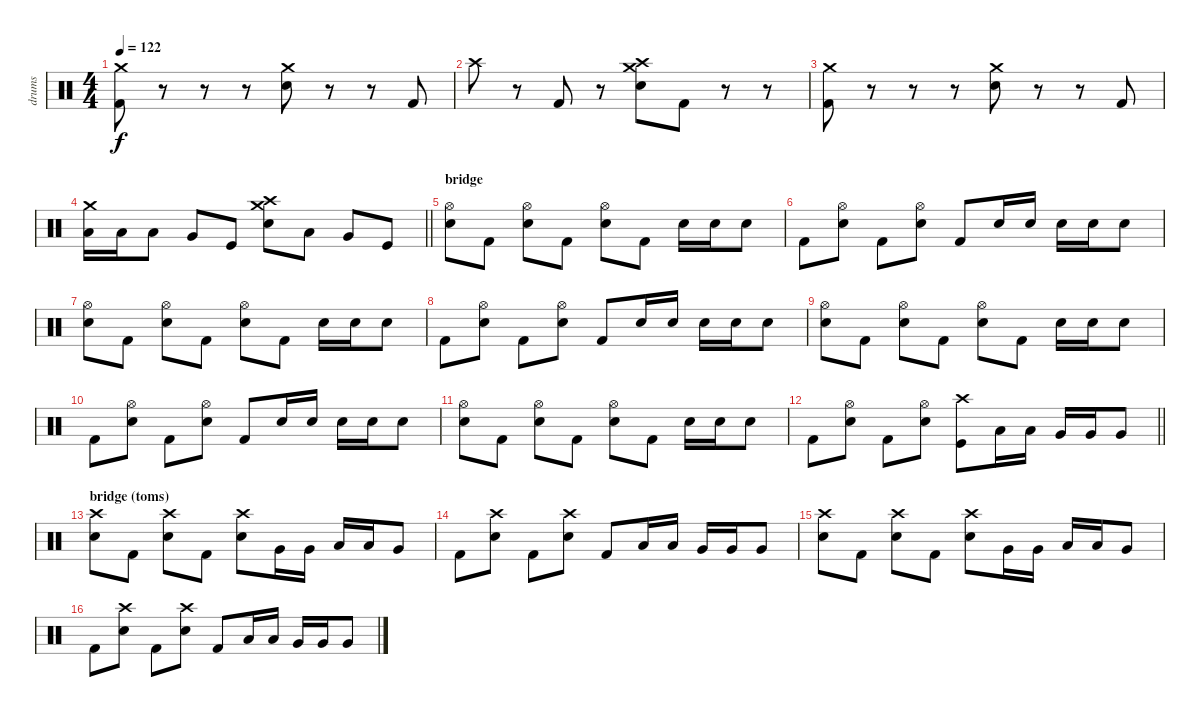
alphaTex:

\track ("drums" "drums") {instrument percussion}
\staff {score}
\articulation defaults
\ts (4 4)
\tempo 122
\clef neutral
\ks c
("Crash medium (hit)" "Kick (hit) 2").8{dy f} r.8 r.8 r.8 ("Crash medium (hit)" "Electric Snare (hit)").8 r.8 r.8 "Kick (hit) 2".8 |
"Crash high (hit)".8 r.8 "Kick (hit) 2".8 r.8 ("Crash medium (hit)" "Crash high (hit)" "Electric Snare (hit)").8 "Kick (hit) 2".8 r.8 r.8 |
("Crash medium (hit)" "Kick (hit) 2").8 r.8 r.8 r.8 ("Crash medium (hit)" "Electric Snare (hit)").8 r.8 r.8 "Kick (hit) 2".8 |
\barLineRight lightlight
("Crash medium (hit)" "Low Tom (hit)").16 "Low Tom (hit)".16 "Low Tom (hit)".8 "Very Low Tom (hit)".8 "Kick (hit)".8 ("Crash medium (hit)" "Crash high (hit)" "Electric Snare (hit)").8 "Low Tom (hit)".8 "Very Low Tom (hit)".8 "Kick (hit)".8 |
\section ("" "bridge")
("Hi-Hat (open)" "Electric Snare (hit)").8 "Kick (hit) 2".8 ("Hi-Hat (open)" "Electric Snare (hit)").8 "Kick (hit) 2".8 ("Hi-Hat (open)" "Electric Snare (hit)").8 "Kick (hit) 2".8 "Electric Snare (hit)".16 "Electric Snare (hit)".16 "Electric Snare (hit)".8 |
"Kick (hit) 2".8 ("Hi-Hat (open)" "Electric Snare (hit)").8 "Kick (hit) 2".8 ("Hi-Hat (open)" "Electric Snare (hit)").8 "Kick (hit) 2".8 "Electric Snare (hit)".16 "Electric Snare (hit)".16 "Electric Snare (hit)".16 "Electric Snare (hit)".16 "Electric Snare (hit)".8 |
("Hi-Hat (open)" "Electric Snare (hit)").8 "Kick (hit) 2".8 ("Hi-Hat (open)" "Electric Snare (hit)").8 "Kick (hit) 2".8 ("Hi-Hat (open)" "Electric Snare (hit)").8 "Kick (hit) 2".8 "Electric Snare (hit)".16 "Electric Snare (hit)".16 "Electric Snare (hit)".8 |
"Kick (hit) 2".8 ("Hi-Hat (open)" "Electric Snare (hit)").8 "Kick (hit) 2".8 ("Hi-Hat (open)" "Electric Snare (hit)").8 "Kick (hit) 2".8 "Electric Snare (hit)".16 "Electric Snare (hit)".16 "Electric Snare (hit)".16 "Electric Snare (hit)".16 "Electric Snare (hit)".8 |
("Hi-Hat (open)" "Electric Snare (hit)").8 "Kick (hit) 2".8 ("Hi-Hat (open)" "Electric Snare (hit)").8 "Kick (hit) 2".8 ("Hi-Hat (open)" "Electric Snare (hit)").8 "Kick (hit) 2".8 "Electric Snare (hit)".16 "Electric Snare (hit)".16 "Electric Snare (hit)".8 |
"Kick (hit) 2".8 ("Hi-Hat (open)" "Electric Snare (hit)").8 "Kick (hit) 2".8 ("Hi-Hat (open)" "Electric Snare (hit)").8 "Kick (hit) 2".8 "Electric Snare (hit)".16 "Electric Snare (hit)".16 "Electric Snare (hit)".16 "Electric Snare (hit)".16 "Electric Snare (hit)".8 |
("Hi-Hat (open)" "Electric Snare (hit)").8 "Kick (hit) 2".8 ("Hi-Hat (open)" "Electric Snare (hit)").8 "Kick (hit) 2".8 ("Hi-Hat (open)" "Electric Snare (hit)").8 "Kick (hit) 2".8 "Electric Snare (hit)".16 "Electric Snare (hit)".16 "Electric Snare (hit)".8 |
\barLineRight lightlight "Kick (hit) 2".8
("Hi-Hat (open)" "Electric Snare (hit)").8 "Kick (hit) 2".8 ("Hi-Hat (open)" "Electric Snare (hit)").8 ("Crash high (hit)" "Kick (hit)").8 "Low Tom (hit)".16 "Low Tom (hit)".16 "Very Low Tom (hit)".16 "Very Low Tom (hit)".16 "Very Low Tom (hit)".8 |
\section ("" "bridge (toms)")
("Crash high (hit)" "Electric Snare (hit)").8 "Kick (hit) 2".8 ("Crash high (hit)" "Electric Snare (hit)").8 "Kick (hit) 2".8 ("Crash high (hit)" "Electric Snare (hit)").8 "Very Low Tom (hit)".16 "Very Low Tom (hit)".16 "Low Tom (hit)".16 "Low Tom (hit)".16 "Very Low Tom (hit)".8 |
"Kick (hit) 2".8 ("Crash high (hit)" "Electric Snare (hit)").8 "Kick (hit) 2".8 ("Crash high (hit)" "Electric Snare (hit)").8 "Kick (hit) 2".8 "Low Tom (hit)".16 "Low Tom (hit)".16 "Very Low Tom (hit)".16 "Very Low Tom (hit)".16 "Very Low Tom (hit)".8 |
("Crash high (hit)" "Electric Snare (hit)").8 "Kick (hit) 2".8 ("Crash high (hit)" "Electric Snare (hit)").8 "Kick (hit) 2".8 ("Crash high (hit)" "Electric Snare (hit)").8 "Very Low Tom (hit)".16 "Very Low Tom (hit)".16 "Low Tom (hit)".16 "Low Tom (hit)".16 "Very Low Tom (hit)".8 |
"Kick (hit) 2".8 ("Crash high (hit)" "Electric Snare (hit)").8 "Kick (hit) 2".8 ("Crash high (hit)" "Electric Snare (hit)").8 "Kick (hit) 2".8 "Low Tom (hit)".16 "Low Tom (hit)".16 "Very Low Tom (hit)".16 "Very Low Tom (hit)".16 "Very Low Tom (hit)".8
